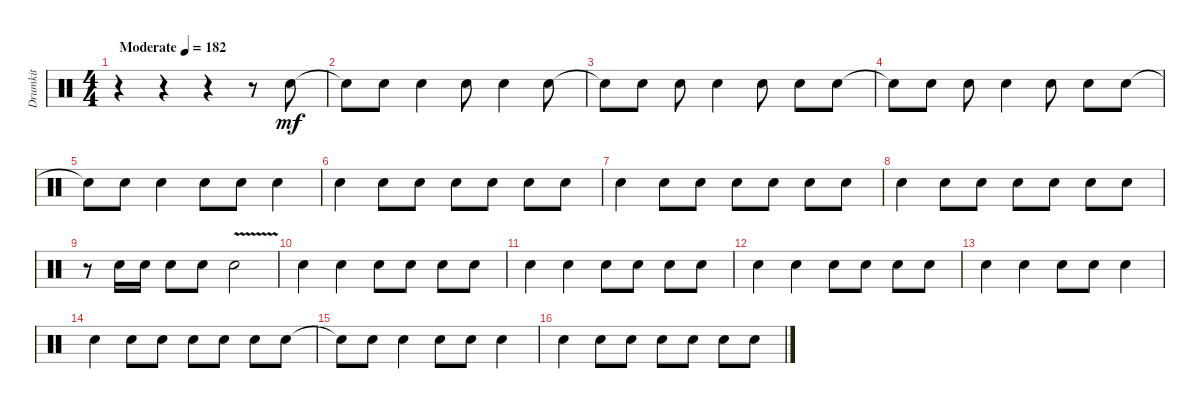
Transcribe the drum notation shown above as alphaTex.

\track ("Drumkit" "Drumkit") {instrument percussion}
\staff {score}
\articulation defaults
\ts (4 4)
\tempo (182 "Moderate")
\clef neutral
\ks c
r.4{dy mf} r.4 r.4 r.8 "Snare (hit)".8 |
"Snare (hit)"{t}.8 "Snare (hit)".8 "Snare (hit)".4 "Snare (hit)".8 "Snare (hit)".4 "Snare (hit)".8 |
"Snare (hit)"{t}.8 "Snare (hit)".8 "Snare (hit)".8 "Snare (hit)".4 "Snare (hit)".8 "Snare (hit)".8 "Snare (hit)".8 |
"Snare (hit)"{t}.8 "Snare (hit)".8 "Snare (hit)".8 "Snare (hit)".4 "Snare (hit)".8 "Snare (hit)".8 "Snare (hit)".8 |
"Snare (hit)"{t}.8 "Snare (hit)".8 "Snare (hit)".4 "Snare (hit)".8 "Snare (hit)".8 "Snare (hit)".4 |
"Snare (hit)".4 "Snare (hit)".8 "Snare (hit)".8 "Snare (hit)".8 "Snare (hit)".8 "Snare (hit)".8 "Snare (hit)".8 |
"Snare (hit)".4 "Snare (hit)".8 "Snare (hit)".8 "Snare (hit)".8 "Snare (hit)".8 "Snare (hit)".8 "Snare (hit)".8 |
"Snare (hit)".4 "Snare (hit)".8 "Snare (hit)".8 "Snare (hit)".8 "Snare (hit)".8 "Snare (hit)".8 "Snare (hit)".8 |
r.8 "Snare (hit)".16 "Snare (hit)".16 "Snare (hit)".8 "Snare (hit)".8 "Snare (hit)"{v}.2 |
"Snare (hit)".4 "Snare (hit)".4 "Snare (hit)".8 "Snare (hit)".8 "Snare (hit)".8 "Snare (hit)".8 |
"Snare (hit)".4 "Snare (hit)".4 "Snare (hit)".8 "Snare (hit)".8 "Snare (hit)".8 "Snare (hit)".8 |
"Snare (hit)".4 "Snare (hit)".4 "Snare (hit)".8 "Snare (hit)".8 "Snare (hit)".8 "Snare (hit)".8 |
"Snare (hit)".4 "Snare (hit)".4 "Snare (hit)".8 "Snare (hit)".8 "Snare (hit)".4 |
"Snare (hit)".4 "Snare (hit)".8 "Snare (hit)".8 "Snare (hit)".8 "Snare (hit)".8 "Snare (hit)".8 "Snare (hit)".8 |
"Snare (hit)"{t}.8 "Snare (hit)".8 "Snare (hit)".4 "Snare (hit)".8 "Snare (hit)".8 "Snare (hit)".4 |
"Snare (hit)".4 "Snare (hit)".8 "Snare (hit)".8 "Snare (hit)".8 "Snare (hit)".8 "Snare (hit)".8 "Snare (hit)".8
